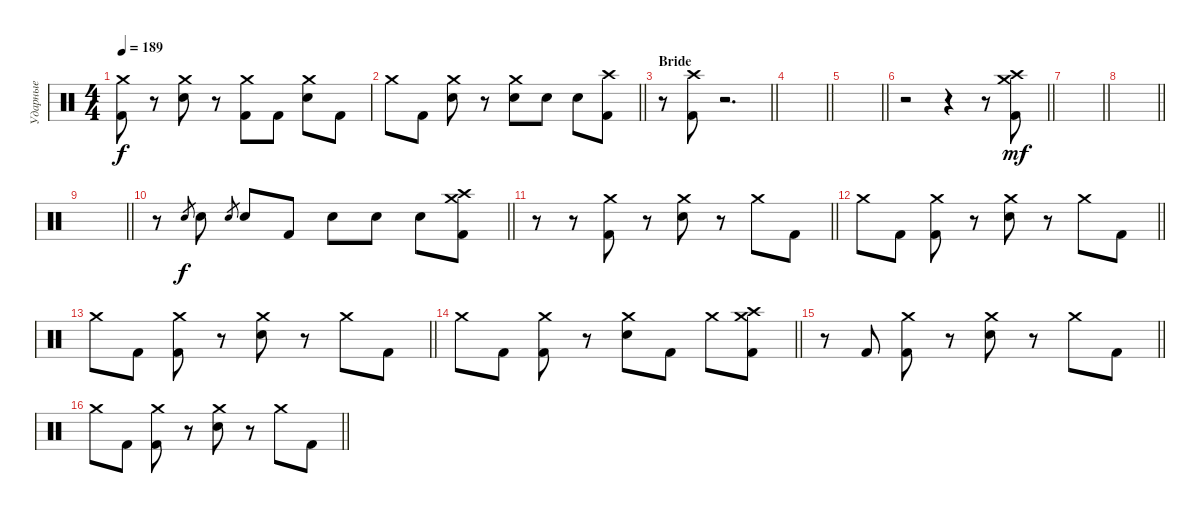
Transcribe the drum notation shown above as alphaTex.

\track ("Ударные" "Ударные") {instrument percussion}
\staff {score}
\articulation defaults
\ts (4 4)
\tempo 189
\clef neutral
\ks c
("Crash medium (hit)" "Kick (hit) 2").8{dy f} r.8 ("Crash medium (hit)" "Electric Snare (hit)").8 r.8 ("Crash medium (hit)" "Kick (hit) 2").8 "Kick (hit) 2".8 ("Crash medium (hit)" "Electric Snare (hit)").8 "Kick (hit) 2".8 |
\barLineRight lightlight "Crash medium (hit)".8 "Kick (hit) 2".8
("Crash medium (hit)" "Electric Snare (hit)").8 r.8 ("Crash medium (hit)" "Electric Snare (hit)").8 "Electric Snare (hit)".8 "Electric Snare (hit)".8 ("Crash high (hit)" "Kick (hit) 2").8 |
\section ("" "Bride")
\barLineRight lightlight
r.8 ("Crash high (hit)" "Kick (hit) 2").8 r.2{d} |
\barLineRight lightlight
|
\barLineRight lightlight
|
\barLineRight lightlight
r.2 r.4 r.8 ("Crash medium (hit)" "Crash high (hit)" "Kick (hit) 2").8{dy mf} |
\barLineRight lightlight
|
\barLineRight lightlight
|
\barLineRight lightlight
|
\barLineRight lightlight
r.8 "Electric Snare (hit)".8{gr dy f} "Electric Snare (hit)".8 "Electric Snare (hit)".8{gr} "Electric Snare (hit)".8 "Kick (hit) 2".8 "Electric Snare (hit)".8 "Electric Snare (hit)".8 "Electric Snare (hit)".8 ("Crash medium (hit)" "Crash high (hit)" "Kick (hit) 2").8 |
\barLineRight lightlight
r.8 r.8 ("Crash medium (hit)" "Kick (hit) 2").8 r.8 ("Crash medium (hit)" "Electric Snare (hit)").8 r.8 "Crash medium (hit)".8 "Kick (hit) 2".8 |
\barLineRight lightlight "Crash medium (hit)".8 "Kick (hit) 2".8
("Crash medium (hit)" "Kick (hit) 2").8 r.8 ("Crash medium (hit)" "Electric Snare (hit)").8 r.8 "Crash medium (hit)".8 "Kick (hit) 2".8 |
\barLineRight lightlight "Crash medium (hit)".8 "Kick (hit) 2".8
("Crash medium (hit)" "Kick (hit) 2").8 r.8 ("Crash medium (hit)" "Electric Snare (hit)").8 r.8 "Crash medium (hit)".8 "Kick (hit) 2".8 |
\barLineRight lightlight "Crash medium (hit)".8 "Kick (hit) 2".8
("Crash medium (hit)" "Kick (hit) 2").8 r.8 ("Crash medium (hit)" "Electric Snare (hit)").8 "Kick (hit) 2".8 "Crash medium (hit)".8 ("Crash medium (hit)" "Crash high (hit)" "Kick (hit) 2").8 |
\barLineRight lightlight
r.8 "Kick (hit) 2".8 ("Crash medium (hit)" "Kick (hit) 2").8 r.8 ("Crash medium (hit)" "Electric Snare (hit)").8 r.8 "Crash medium (hit)".8 "Kick (hit) 2".8 |
\barLineRight lightlight "Crash medium (hit)".8 "Kick (hit) 2".8
("Crash medium (hit)" "Kick (hit) 2").8 r.8 ("Crash medium (hit)" "Electric Snare (hit)").8 r.8 "Crash medium (hit)".8 "Kick (hit) 2".8
